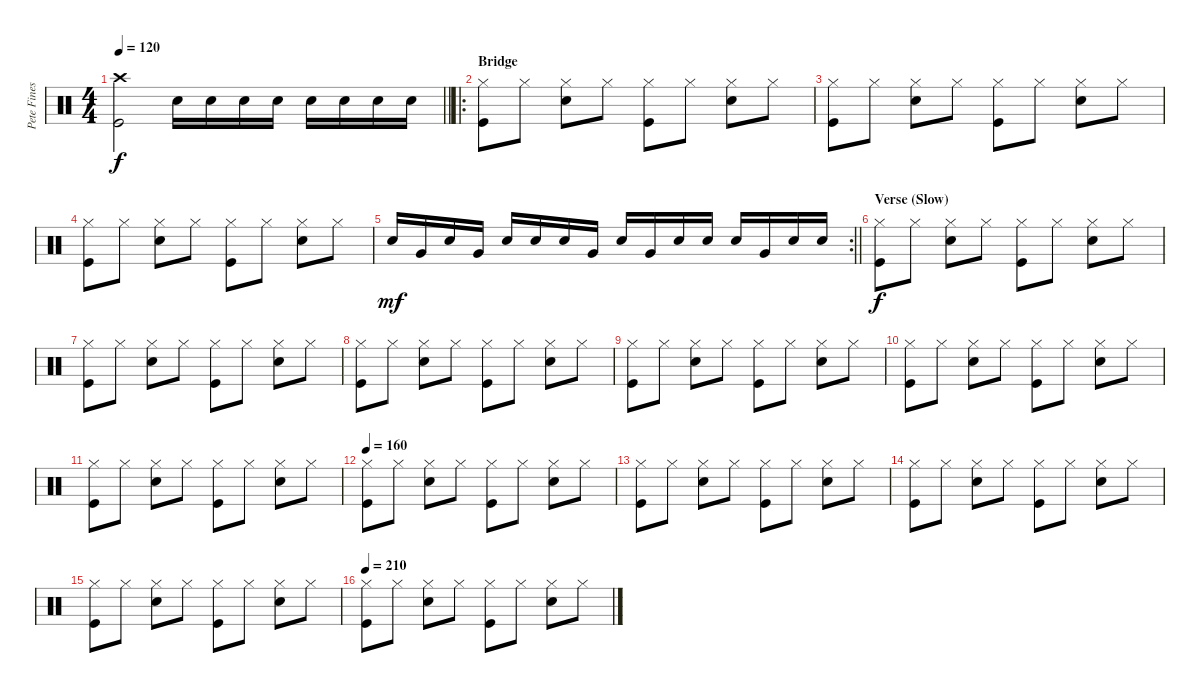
\track ("Pete Finestone (Drums)" "Pete Fines") {instrument percussion}
\staff {score}
\articulation defaults
\ts (4 4)
\tempo 120
\clef neutral
\barLineRight lightlight
\ks c
("Crash high (hit)" "Kick (hit)").2{dy f} "Snare (hit) 2".16 "Snare (hit) 2".16 "Snare (hit) 2".16 "Snare (hit) 2".16 "Snare (hit) 2".16 "Snare (hit) 2".16 "Snare (hit) 2".16 "Snare (hit) 2".16 |
\ro
\section ("" "Bridge")
("Hi-Hat (closed)" "Kick (hit)").8 "Hi-Hat (closed)".8 ("Hi-Hat (closed)" "Snare (hit) 2").8 "Hi-Hat (closed)".8 ("Hi-Hat (closed)" "Kick (hit)").8 "Hi-Hat (closed)".8 ("Hi-Hat (closed)" "Snare (hit) 2").8 "Hi-Hat (closed)".8 |
("Hi-Hat (closed)" "Kick (hit)").8 "Hi-Hat (closed)".8 ("Hi-Hat (closed)" "Snare (hit) 2").8 "Hi-Hat (closed)".8 ("Hi-Hat (closed)" "Kick (hit)").8 "Hi-Hat (closed)".8 ("Hi-Hat (closed)" "Snare (hit) 2").8 "Hi-Hat (closed)".8 |
("Hi-Hat (closed)" "Kick (hit)").8 "Hi-Hat (closed)".8 ("Hi-Hat (closed)" "Snare (hit) 2").8 "Hi-Hat (closed)".8 ("Hi-Hat (closed)" "Kick (hit)").8 "Hi-Hat (closed)".8 ("Hi-Hat (closed)" "Snare (hit) 2").8 "Hi-Hat (closed)".8 |
\rc 2
\barLineRight lightlight "Snare (hit) 2".16{dy mf} "Very Low Tom (hit)".16 "Snare (hit) 2".16 "Very Low Tom (hit)".16 "Snare (hit) 2".16 "Snare (hit) 2".16 "Snare (hit) 2".16 "Very Low Tom (hit)".16 "Snare (hit) 2".16 "Very Low Tom (hit)".16 "Snare (hit) 2".16 "Snare (hit) 2".16 "Snare (hit) 2".16 "Very Low Tom (hit)".16 "Snare (hit) 2".16 "Snare (hit) 2".16
|
\section ("" "Verse (Slow)")
("Hi-Hat (closed)" "Kick (hit)").8{dy f} "Hi-Hat (closed)".8 ("Hi-Hat (closed)" "Snare (hit) 2").8 "Hi-Hat (closed)".8 ("Hi-Hat (closed)" "Kick (hit)").8 "Hi-Hat (closed)".8 ("Hi-Hat (closed)" "Snare (hit) 2").8 "Hi-Hat (closed)".8 |
("Hi-Hat (closed)" "Kick (hit)").8 "Hi-Hat (closed)".8 ("Hi-Hat (closed)" "Snare (hit) 2").8 "Hi-Hat (closed)".8 ("Hi-Hat (closed)" "Kick (hit)").8 "Hi-Hat (closed)".8 ("Hi-Hat (closed)" "Snare (hit) 2").8 "Hi-Hat (closed)".8 |
("Hi-Hat (closed)" "Kick (hit)").8 "Hi-Hat (closed)".8 ("Hi-Hat (closed)" "Snare (hit) 2").8 "Hi-Hat (closed)".8 ("Hi-Hat (closed)" "Kick (hit)").8 "Hi-Hat (closed)".8 ("Hi-Hat (closed)" "Snare (hit) 2").8 "Hi-Hat (closed)".8 |
("Hi-Hat (closed)" "Kick (hit)").8 "Hi-Hat (closed)".8 ("Hi-Hat (closed)" "Snare (hit) 2").8 "Hi-Hat (closed)".8 ("Hi-Hat (closed)" "Kick (hit)").8 "Hi-Hat (closed)".8 ("Hi-Hat (closed)" "Snare (hit) 2").8 "Hi-Hat (closed)".8 |
("Hi-Hat (closed)" "Kick (hit)").8 "Hi-Hat (closed)".8 ("Hi-Hat (closed)" "Snare (hit) 2").8 "Hi-Hat (closed)".8 ("Hi-Hat (closed)" "Kick (hit)").8 "Hi-Hat (closed)".8 ("Hi-Hat (closed)" "Snare (hit) 2").8 "Hi-Hat (closed)".8 |
("Hi-Hat (closed)" "Kick (hit)").8 "Hi-Hat (closed)".8 ("Hi-Hat (closed)" "Snare (hit) 2").8 "Hi-Hat (closed)".8 ("Hi-Hat (closed)" "Kick (hit)").8 "Hi-Hat (closed)".8 ("Hi-Hat (closed)" "Snare (hit) 2").8 "Hi-Hat (closed)".8 |
\tempo 160
("Hi-Hat (closed)" "Kick (hit)").8 "Hi-Hat (closed)".8 ("Hi-Hat (closed)" "Snare (hit) 2").8 "Hi-Hat (closed)".8 ("Hi-Hat (closed)" "Kick (hit)").8 "Hi-Hat (closed)".8 ("Hi-Hat (closed)" "Snare (hit) 2").8 "Hi-Hat (closed)".8 |
("Hi-Hat (closed)" "Kick (hit)").8 "Hi-Hat (closed)".8 ("Hi-Hat (closed)" "Snare (hit) 2").8 "Hi-Hat (closed)".8 ("Hi-Hat (closed)" "Kick (hit)").8 "Hi-Hat (closed)".8 ("Hi-Hat (closed)" "Snare (hit) 2").8 "Hi-Hat (closed)".8 |
("Hi-Hat (closed)" "Kick (hit)").8 "Hi-Hat (closed)".8 ("Hi-Hat (closed)" "Snare (hit) 2").8 "Hi-Hat (closed)".8 ("Hi-Hat (closed)" "Kick (hit)").8 "Hi-Hat (closed)".8 ("Hi-Hat (closed)" "Snare (hit) 2").8 "Hi-Hat (closed)".8 |
("Hi-Hat (closed)" "Kick (hit)").8 "Hi-Hat (closed)".8 ("Hi-Hat (closed)" "Snare (hit) 2").8 "Hi-Hat (closed)".8 ("Hi-Hat (closed)" "Kick (hit)").8 "Hi-Hat (closed)".8 ("Hi-Hat (closed)" "Snare (hit) 2").8 "Hi-Hat (closed)".8 |
\tempo 210
("Hi-Hat (closed)" "Kick (hit)").8 "Hi-Hat (closed)".8 ("Hi-Hat (closed)" "Snare (hit) 2").8 "Hi-Hat (closed)".8 ("Hi-Hat (closed)" "Kick (hit)").8 "Hi-Hat (closed)".8 ("Hi-Hat (closed)" "Snare (hit) 2").8 "Hi-Hat (closed)".8
